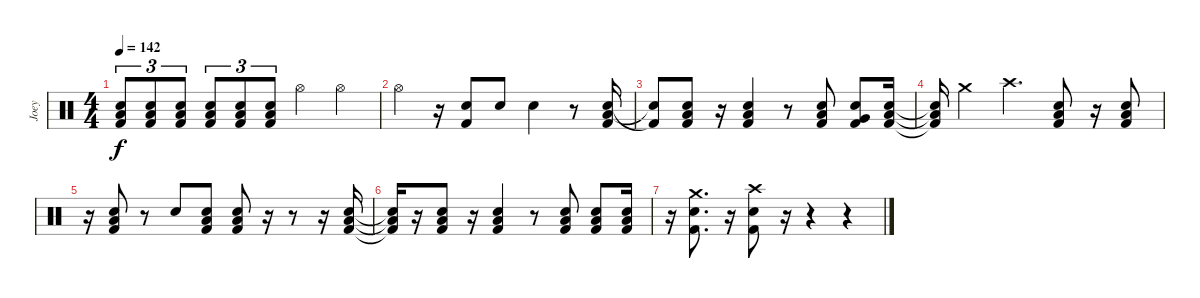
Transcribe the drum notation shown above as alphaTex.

\track ("Joey" "Joey") {instrument percussion}
\staff {score}
\articulation defaults
\ts (4 4)
\tempo 142
\clef neutral
\ks c
("Electric Snare (hit)" "Low Floor Tom (hit)" "Kick (hit) 2").8{tu (3 2) dy f} ("Electric Snare (hit)" "Low Floor Tom (hit)" "Kick (hit) 2").8{tu (3 2)} ("Electric Snare (hit)" "Low Floor Tom (hit)" "Kick (hit) 2").8{tu (3 2)} ("Electric Snare (hit)" "Low Floor Tom (hit)" "Kick (hit) 2").8{tu (3 2)} ("Electric Snare (hit)" "Low Floor Tom (hit)" "Kick (hit) 2").8{tu (3 2)} ("Electric Snare (hit)" "Low Floor Tom (hit)" "Kick (hit) 2").8{tu (3 2)} "Hi-Hat (open)".4 "Hi-Hat (open)".4 |
"Hi-Hat (open)".4 r.16 ("Electric Snare (hit)" "Kick (hit) 2").8 "Electric Snare (hit)".8 "Electric Snare (hit)".4 r.8 ("Low Floor Tom (hit)" "Electric Snare (hit)" "Kick (hit) 2").16 |
("Electric Snare (hit)"{t} "Kick (hit) 2"{t}).8 ("Low Floor Tom (hit)" "Electric Snare (hit)" "Kick (hit) 2").8 r.16 ("Low Floor Tom (hit)" "Electric Snare (hit)" "Kick (hit) 2").4 r.8 ("Low Floor Tom (hit)" "Electric Snare (hit)" "Kick (hit) 2").8 ("Very Low Tom (hit)" "Electric Snare (hit)" "Kick (hit) 2").8 ("Low Floor Tom (hit)" "Electric Snare (hit)" "Kick (hit) 2").16 |
("Low Floor Tom (hit)"{t} "Electric Snare (hit)"{t} "Kick (hit) 2"{t}).16 "Crash medium (hit)".4 "Crash high (hit)".4{d} ("Low Floor Tom (hit)" "Electric Snare (hit)" "Kick (hit) 2").8 r.16 ("Low Floor Tom (hit)" "Electric Snare (hit)" "Kick (hit) 2").8 |
r.16 ("Low Floor Tom (hit)" "Electric Snare (hit)" "Kick (hit) 2").8 r.8 "Electric Snare (hit)".8 ("Low Floor Tom (hit)" "Electric Snare (hit)" "Kick (hit) 2").8 ("Low Floor Tom (hit)" "Electric Snare (hit)" "Kick (hit) 2").8 r.16 r.8 r.16 ("Electric Snare (hit)" "Low Floor Tom (hit)" "Kick (hit) 2").16 |
("Electric Snare (hit)"{t} "Low Floor Tom (hit)"{t} "Kick (hit) 2"{t}).16 r.16 ("Electric Snare (hit)" "Low Floor Tom (hit)" "Kick (hit) 2").8 r.16 ("Electric Snare (hit)" "Low Floor Tom (hit)" "Kick (hit) 2").4 r.8 ("Low Floor Tom (hit)" "Electric Snare (hit)" "Kick (hit) 2").8 ("Low Floor Tom (hit)" "Electric Snare (hit)" "Kick (hit) 2").8 ("Electric Snare (hit)" "Low Floor Tom (hit)" "Kick (hit) 2").16 |
r.16 ("Crash medium (hit)" "Electric Snare (hit)" "Kick (hit) 2").8{d} r.16 ("Crash high (hit)" "Electric Snare (hit)" "Kick (hit) 2").8 r.16 r.4 r.4
